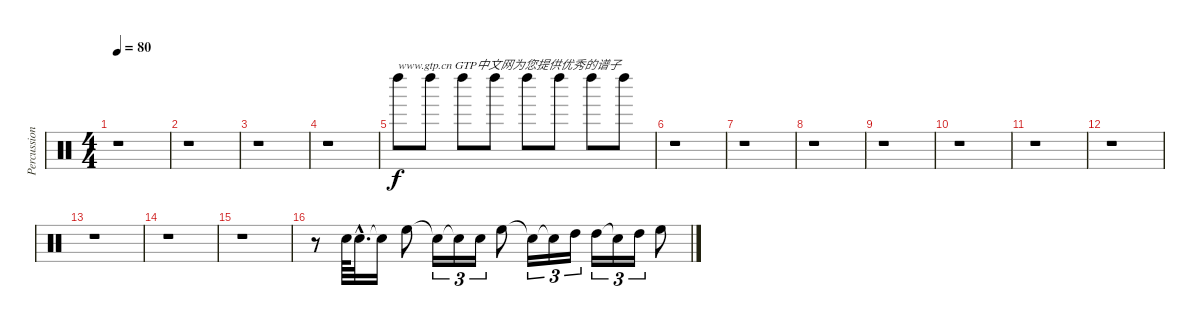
\track ("Percussion" "Percussion") {instrument percussion}
\staff {score}
\articulation defaults
\ts (4 4)
\tempo 80
\clef neutral
\ks c
r.1{dy f} |
r.1 |
r.1 |
r.1 |
"Left Maraca (hit)".8{txt "www.gtp.cn GTP中文网为您提供优秀的谱子"} "Left Maraca (hit)".8 "Left Maraca (hit)".8 "Left Maraca (hit)".8 "Left Maraca (hit)".8 "Left Maraca (hit)".8 "Left Maraca (hit)".8 "Left Maraca (hit)".8 |
r.1 |
r.1 |
r.1 |
r.1 |
r.1 |
r.1 |
r.1 |
r.1 |
r.1 |
r.1 |
r.8 "Snare (hit) 2".64 "Snare (hit) 2"{hac}.32{d} "Snare (hit)"{t}.16 "High Floor Tom (hit)".8 "Snare (hit)"{t}.16{tu (3 2)} "Snare (hit)"{t}.16{tu (3 2)} "Snare (hit) 2".16{tu (3 2)} "High Floor Tom (hit)".8 "Snare (hit)"{t}.16{tu (3 2)} "Snare (hit)"{t}.16{tu (3 2)} "High Tom (hit)".16{tu (3 2)} "High Tom (hit)".16{tu (3 2)} "Snare (hit)"{t}.16{tu (3 2)} "High Tom (hit)".16{tu (3 2)} "High Floor Tom (hit)".8
